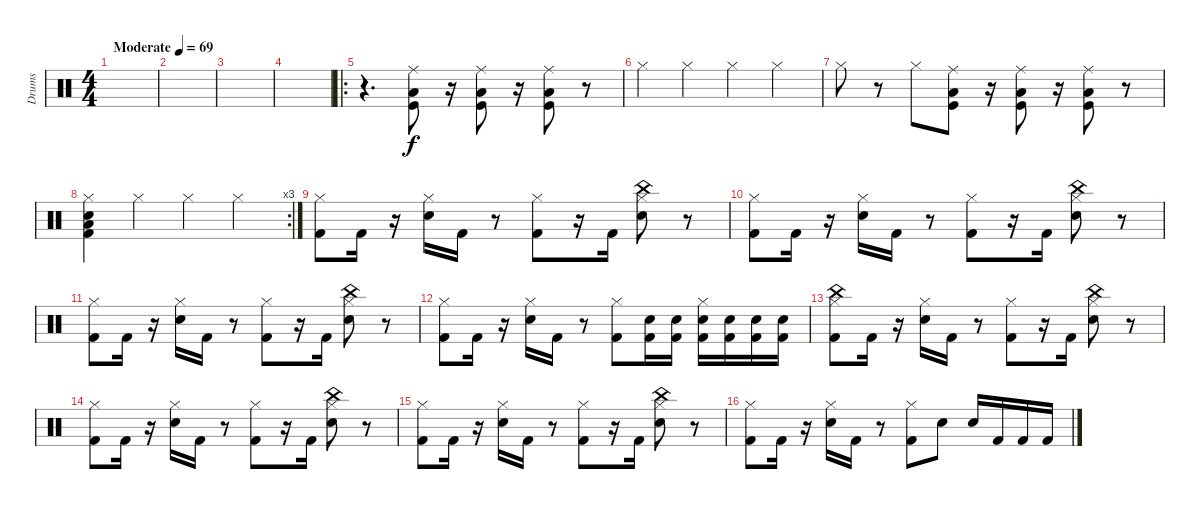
\track ("Drums" "Drums") {instrument percussion}
\staff {score}
\articulation defaults
\ts (4 4)
\tempo (69 "Moderate")
\clef neutral
\ks c
|
|
|
|
\ro
r.4{d} ("Low Floor Tom (hit)" "Kick (hit)" "Ride (middle)").8 r.16 ("Low Floor Tom (hit)" "Kick (hit)" "Ride (middle)").8 r.16 ("Low Floor Tom (hit)" "Kick (hit)" "Ride (middle)").8 r.8 |
"Hi-Hat (closed)".4 "Hi-Hat (closed)".4 "Hi-Hat (closed)".4 "Hi-Hat (closed)".4 |
"Hi-Hat (closed)".8 r.8 "Hi-Hat (closed)".8 ("Low Floor Tom (hit)" "Kick (hit)" "Ride (middle)").8 r.16 ("Low Floor Tom (hit)" "Kick (hit)" "Ride (middle)").8 r.16 ("Low Floor Tom (hit)" "Kick (hit)" "Ride (middle)").8 r.8 |
\rc 3
("Hi-Hat (closed)" "Low Floor Tom (hit)" "Kick (hit) 2" "Snare (hit) 2").4 "Hi-Hat (closed)".4 "Hi-Hat (closed)".4 "Hi-Hat (closed)".4 |
("Hi-Hat (closed)" "Kick (hit) 2").8 "Kick (hit) 2".16 r.16 ("Hi-Hat (closed)" "Snare (hit) 2").16 "Kick (hit) 2".16 r.8 ("Hi-Hat (closed)" "Kick (hit) 2").8 r.16 "Kick (hit) 2".16 ("Hi-Hat (closed)" "Snare (hit) 2" "China (hit)").8 r.8 |
("Hi-Hat (closed)" "Kick (hit) 2").8 "Kick (hit) 2".16 r.16 ("Hi-Hat (closed)" "Snare (hit) 2").16 "Kick (hit) 2".16 r.8 ("Hi-Hat (closed)" "Kick (hit) 2").8 r.16 "Kick (hit) 2".16 ("Hi-Hat (closed)" "Snare (hit) 2" "China (hit)").8 r.8 |
("Hi-Hat (closed)" "Kick (hit) 2").8 "Kick (hit) 2".16 r.16 ("Hi-Hat (closed)" "Snare (hit) 2").16 "Kick (hit) 2".16 r.8 ("Hi-Hat (closed)" "Kick (hit) 2").8 r.16 "Kick (hit) 2".16 ("Hi-Hat (closed)" "Snare (hit) 2" "China (hit)").8 r.8 |
("Hi-Hat (closed)" "Kick (hit) 2").8 "Kick (hit) 2".16 r.16 ("Hi-Hat (closed)" "Snare (hit) 2").16 "Kick (hit) 2".16 r.8 ("Hi-Hat (closed)" "Kick (hit) 2").8 ("Kick (hit) 2" "Snare (hit) 2").16 ("Kick (hit) 2" "Snare (hit) 2").16 ("Hi-Hat (closed)" "Kick (hit) 2" "Snare (hit) 2").16 ("Kick (hit) 2" "Snare (hit) 2").16 ("Kick (hit) 2" "Snare (hit) 2").16 ("Kick (hit) 2" "Snare (hit) 2").16 |
("Hi-Hat (closed)" "Kick (hit) 2" "China (hit)").8 "Kick (hit) 2".16 r.16 ("Hi-Hat (closed)" "Snare (hit) 2").16 "Kick (hit) 2".16 r.8 ("Hi-Hat (closed)" "Kick (hit) 2").8 r.16 "Kick (hit) 2".16 ("Hi-Hat (closed)" "Snare (hit) 2" "China (hit)").8 r.8 |
("Hi-Hat (closed)" "Kick (hit) 2").8 "Kick (hit) 2".16 r.16 ("Hi-Hat (closed)" "Snare (hit) 2").16 "Kick (hit) 2".16 r.8 ("Hi-Hat (closed)" "Kick (hit) 2").8 r.16 "Kick (hit) 2".16 ("Hi-Hat (closed)" "Snare (hit) 2" "China (hit)").8 r.8 |
("Hi-Hat (closed)" "Kick (hit) 2").8 "Kick (hit) 2".16 r.16 ("Hi-Hat (closed)" "Snare (hit) 2").16 "Kick (hit) 2".16 r.8 ("Hi-Hat (closed)" "Kick (hit) 2").8 r.16 "Kick (hit) 2".16 ("Hi-Hat (closed)" "Snare (hit) 2" "China (hit)").8 r.8 |
("Hi-Hat (closed)" "Kick (hit) 2").8 "Kick (hit) 2".16 r.16 ("Hi-Hat (closed)" "Snare (hit) 2").16 "Kick (hit) 2".16 r.8 ("Hi-Hat (closed)" "Kick (hit) 2").8 "Snare (hit) 2".8 "Snare (hit) 2".16 "Kick (hit) 2".16 "Kick (hit) 2".16 "Kick (hit) 2".16
